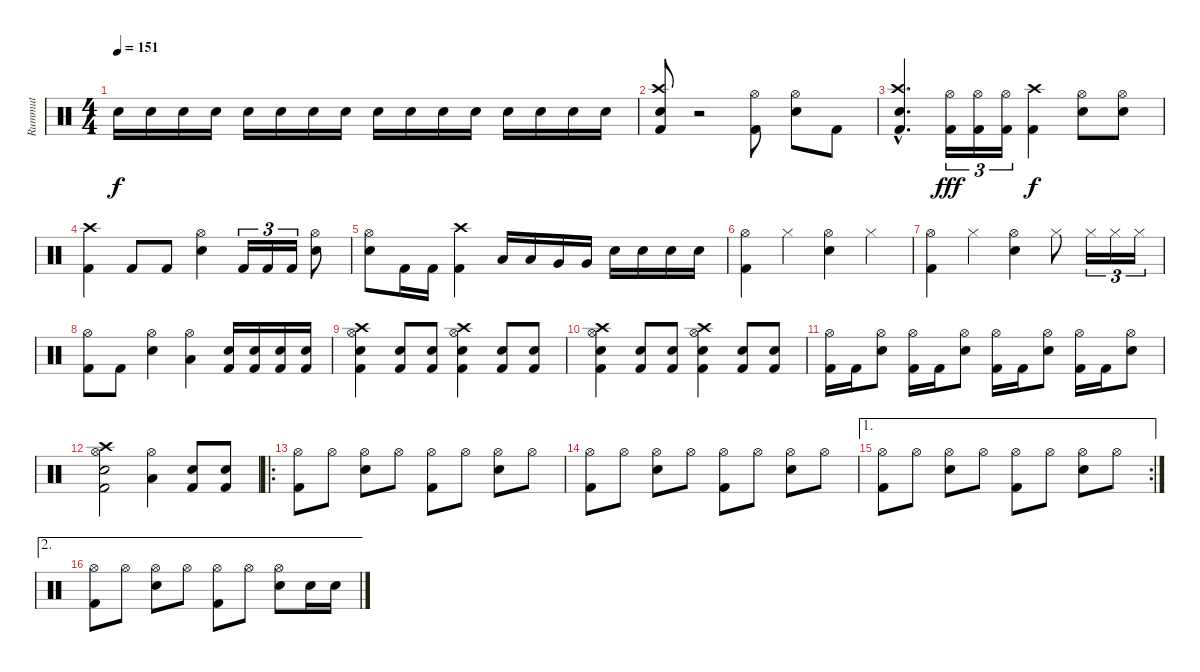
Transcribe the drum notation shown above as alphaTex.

\track ("Rummut" "Rummut") {instrument percussion}
\staff {score}
\articulation defaults
\ts (4 4)
\tempo 151
\clef neutral
\ks c "Electric Snare (hit)".16{dy f} "Electric Snare (hit)".16 "Electric Snare (hit)".16 "Electric Snare (hit)".16 "Electric Snare (hit)".16 "Electric Snare (hit)".16 "Electric Snare (hit)".16 "Electric Snare (hit)".16 "Electric Snare (hit)".16 "Electric Snare (hit)".16 "Electric Snare (hit)".16 "Electric Snare (hit)".16 "Electric Snare (hit)".16 "Electric Snare (hit)".16 "Electric Snare (hit)".16 "Electric Snare (hit)".16
|
("Crash high (hit)" "Kick (hit) 2" "Electric Snare (hit)").8 r.2 ("Hi-Hat (open)" "Kick (hit) 2").8 ("Hi-Hat (open)" "Electric Snare (hit)").8 "Kick (hit) 2".8 |
("Crash high (hit)"{hac} "Kick (hit) 2"{hac} "Electric Snare (hit)"{hac}).4{d} ("Hi-Hat (open)" "Kick (hit) 2").16{tu (3 2) dy fff} ("Hi-Hat (open)" "Kick (hit) 2").16{tu (3 2)} ("Hi-Hat (open)" "Kick (hit) 2").16{tu (3 2)} ("Crash high (hit)" "Kick (hit) 2").4{dy f} ("Hi-Hat (open)" "Electric Snare (hit)").8 ("Hi-Hat (open)" "Electric Snare (hit)").8 |
("Crash high (hit)" "Kick (hit) 2").4 "Kick (hit) 2".8 "Kick (hit) 2".8 ("Hi-Hat (open)" "Electric Snare (hit)").4 "Kick (hit) 2".16{tu (3 2)} "Kick (hit) 2".16{tu (3 2)} "Kick (hit) 2".16{tu (3 2)} ("Hi-Hat (open)" "Electric Snare (hit)").8 |
("Hi-Hat (open)" "Electric Snare (hit)").8 "Kick (hit) 2".16 "Kick (hit) 2".16 ("Crash high (hit)" "Kick (hit) 2").4 "Low Floor Tom (hit)".16 "Low Floor Tom (hit)".16 "Very Low Tom (hit)".16 "Very Low Tom (hit)".16 "Electric Snare (hit)".16 "Electric Snare (hit)".16 "Electric Snare (hit)".16 "Electric Snare (hit)".16 |
("Hi-Hat (open)" "Kick (hit) 2").4 "Hi-Hat (closed)".4 ("Hi-Hat (open)" "Electric Snare (hit)").4 "Hi-Hat (closed)".4 |
("Hi-Hat (open)" "Kick (hit) 2").4 "Hi-Hat (closed)".4 ("Hi-Hat (open)" "Electric Snare (hit)").4 "Hi-Hat (closed)".8 "Hi-Hat (closed)".16{tu (3 2)} "Hi-Hat (closed)".16{tu (3 2)} "Hi-Hat (closed)".16{tu (3 2)} |
("Hi-Hat (open)" "Kick (hit) 2").8 "Kick (hit) 2".8 ("Hi-Hat (open)" "Electric Snare (hit)").4 ("Hi-Hat (open)" "Low Floor Tom (hit)").4 ("Electric Snare (hit)" "Kick (hit) 2").16 ("Electric Snare (hit)" "Kick (hit) 2").16 ("Electric Snare (hit)" "Kick (hit) 2").16 ("Electric Snare (hit)" "Kick (hit) 2").16 |
("Crash high (hit)" "Hi-Hat (open)" "Kick (hit) 2" "Electric Snare (hit)").4 ("Kick (hit) 2" "Electric Snare (hit)").8 ("Kick (hit) 2" "Electric Snare (hit)").8 ("Crash high (hit)" "Hi-Hat (open)" "Kick (hit) 2" "Electric Snare (hit)").4 ("Kick (hit) 2" "Electric Snare (hit)").8 ("Kick (hit) 2" "Electric Snare (hit)").8 |
("Crash high (hit)" "Hi-Hat (open)" "Kick (hit) 2" "Electric Snare (hit)").4 ("Kick (hit) 2" "Electric Snare (hit)").8 ("Kick (hit) 2" "Electric Snare (hit)").8 ("Crash high (hit)" "Hi-Hat (open)" "Kick (hit) 2" "Electric Snare (hit)").4 ("Kick (hit) 2" "Electric Snare (hit)").8 ("Kick (hit) 2" "Electric Snare (hit)").8 |
("Hi-Hat (open)" "Kick (hit) 2").16 "Kick (hit) 2".16 ("Hi-Hat (open)" "Electric Snare (hit)").8 ("Hi-Hat (open)" "Kick (hit) 2").16 "Kick (hit) 2".16 ("Hi-Hat (open)" "Electric Snare (hit)").8 ("Hi-Hat (open)" "Kick (hit) 2").16 "Kick (hit) 2".16 ("Hi-Hat (open)" "Electric Snare (hit)").8 ("Hi-Hat (open)" "Kick (hit) 2").16 "Kick (hit) 2".16 ("Hi-Hat (open)" "Electric Snare (hit)").8 |
("Crash high (hit)" "Hi-Hat (open)" "Electric Snare (hit)" "Kick (hit) 2").2 ("Hi-Hat (open)" "Low Floor Tom (hit)").4 ("Electric Snare (hit)" "Kick (hit) 2").8 ("Electric Snare (hit)" "Kick (hit) 2").8 |
\ro
("Hi-Hat (open)" "Kick (hit) 2").8 "Hi-Hat (open)".8 ("Hi-Hat (open)" "Electric Snare (hit)").8 "Hi-Hat (open)".8 ("Hi-Hat (open)" "Kick (hit) 2").8 "Hi-Hat (open)".8 ("Hi-Hat (open)" "Electric Snare (hit)").8 "Hi-Hat (open)".8 |
("Hi-Hat (open)" "Kick (hit) 2").8 "Hi-Hat (open)".8 ("Hi-Hat (open)" "Electric Snare (hit)").8 "Hi-Hat (open)".8 ("Hi-Hat (open)" "Kick (hit) 2").8 "Hi-Hat (open)".8 ("Hi-Hat (open)" "Electric Snare (hit)").8 "Hi-Hat (open)".8 |
\ae 1
\rc 2
("Hi-Hat (open)" "Kick (hit) 2").8 "Hi-Hat (open)".8 ("Hi-Hat (open)" "Electric Snare (hit)").8 "Hi-Hat (open)".8 ("Hi-Hat (open)" "Kick (hit) 2").8 "Hi-Hat (open)".8 ("Hi-Hat (open)" "Electric Snare (hit)").8 "Hi-Hat (open)".8 |
\ae 2
("Hi-Hat (open)" "Kick (hit) 2").8 "Hi-Hat (open)".8 ("Hi-Hat (open)" "Electric Snare (hit)").8 "Hi-Hat (open)".8 ("Hi-Hat (open)" "Kick (hit) 2").8 "Hi-Hat (open)".8 ("Hi-Hat (open)" "Electric Snare (hit)").8 "Electric Snare (hit)".16 "Electric Snare (hit)".16
